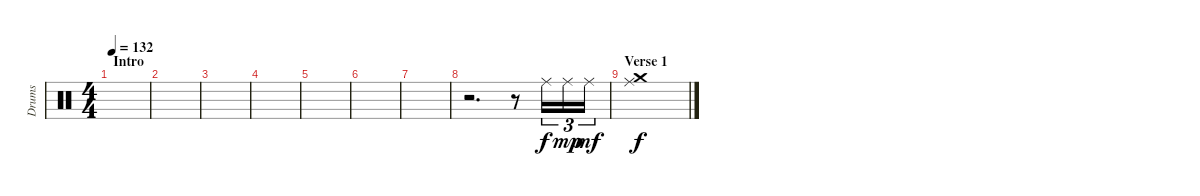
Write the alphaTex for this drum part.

\track ("Drums" "Drums") {instrument percussion}
\staff {score}
\articulation defaults
\ts (4 4)
\section ("" "Intro")
\tempo 132
\clef neutral
\ks c
|
|
|
|
|
|
|
r.2{d} r.8 "Ride (middle)".16{tu (3 2)} "Ride (middle)".16{tu (3 2) dy mp} "Ride (middle)".16{tu (3 2) dy mf} |
\section ("" "Verse 1")
("Crash medium (hit)" "Ride (middle)").1{dy f}
